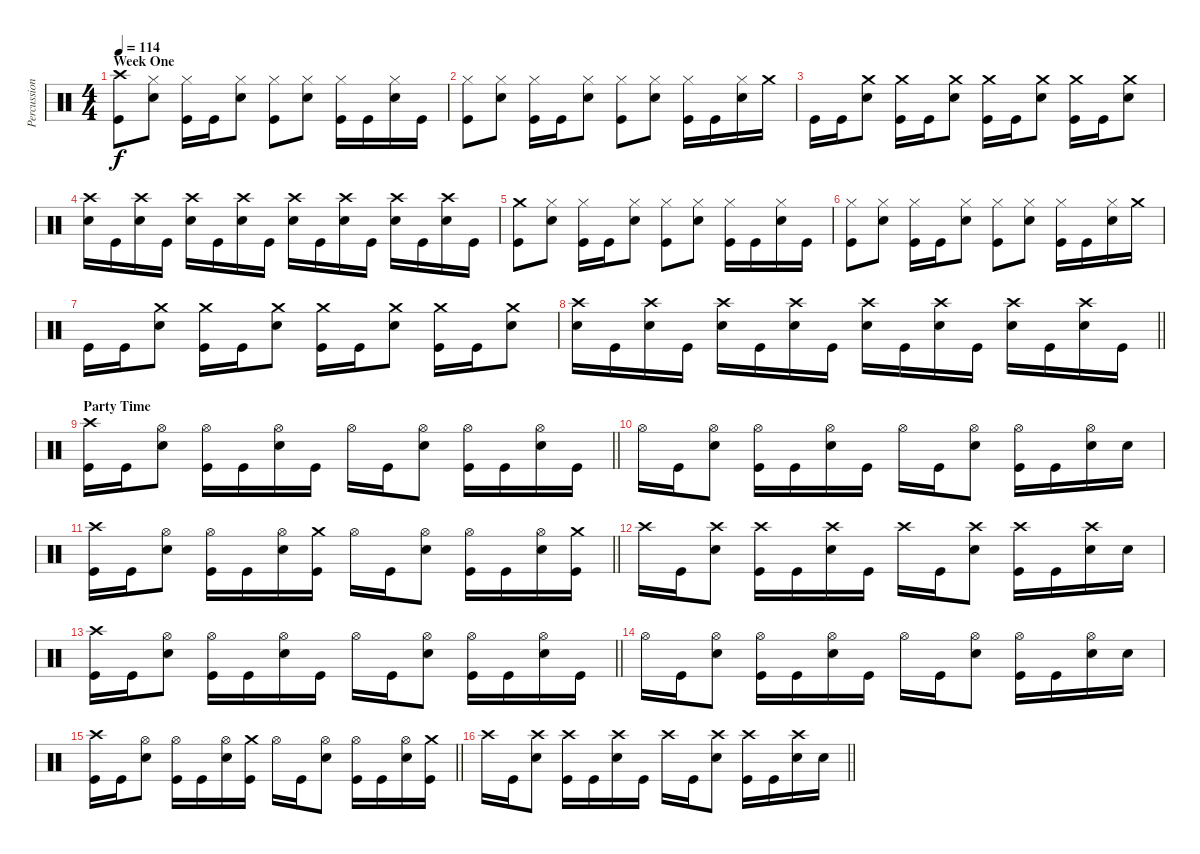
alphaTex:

\track ("Percussion" "Percussion") {instrument percussion}
\staff {score}
\articulation defaults
\ts (4 4)
\section ("" "Week One")
\tempo 114
\clef neutral
\ks c
("Crash high (hit)" "Kick (hit)").8{dy f} ("Hi-Hat (closed)" "Electric Snare (hit)").8 ("Hi-Hat (closed)" "Kick (hit)").16 "Kick (hit)".16 ("Hi-Hat (closed)" "Electric Snare (hit)").8 ("Hi-Hat (closed)" "Kick (hit)").8 ("Hi-Hat (closed)" "Electric Snare (hit)").8 ("Hi-Hat (closed)" "Kick (hit)").16 "Kick (hit)".16 ("Hi-Hat (closed)" "Electric Snare (hit)").16 "Kick (hit)".16 |
("Hi-Hat (closed)" "Kick (hit)").8 ("Hi-Hat (closed)" "Electric Snare (hit)").8 ("Hi-Hat (closed)" "Kick (hit)").16 "Kick (hit)".16 ("Hi-Hat (closed)" "Electric Snare (hit)").8 ("Hi-Hat (closed)" "Kick (hit)").8 ("Hi-Hat (closed)" "Electric Snare (hit)").8 ("Hi-Hat (closed)" "Kick (hit)").16 "Kick (hit)".16 ("Hi-Hat (closed)" "Electric Snare (hit)").16 "Crash medium (hit)".16 |
"Kick (hit)".16 "Kick (hit)".16 ("Crash medium (hit)" "Electric Snare (hit)").8 ("Crash medium (hit)" "Kick (hit)").16 "Kick (hit)".16 ("Crash medium (hit)" "Electric Snare (hit)").8 ("Crash medium (hit)" "Kick (hit)").16 "Kick (hit)".16 ("Crash medium (hit)" "Electric Snare (hit)").8 ("Crash medium (hit)" "Kick (hit)").16 "Kick (hit)".16 ("Crash medium (hit)" "Electric Snare (hit)").8 |
("Crash high (hit)" "Electric Snare (hit)").16 "Kick (hit)".16 ("Crash high (hit)" "Electric Snare (hit)").16 "Kick (hit)".16 ("Crash high (hit)" "Electric Snare (hit)").16 "Kick (hit)".16 ("Crash high (hit)" "Electric Snare (hit)").16 "Kick (hit)".16 ("Crash high (hit)" "Electric Snare (hit)").16 "Kick (hit)".16 ("Crash high (hit)" "Electric Snare (hit)").16 "Kick (hit)".16 ("Crash high (hit)" "Electric Snare (hit)").16 "Kick (hit)".16 ("Crash high (hit)" "Electric Snare (hit)").16 "Kick (hit)".16 |
("Crash medium (hit)" "Kick (hit)").8 ("Hi-Hat (closed)" "Electric Snare (hit)").8 ("Hi-Hat (closed)" "Kick (hit)").16 "Kick (hit)".16 ("Hi-Hat (closed)" "Electric Snare (hit)").8 ("Hi-Hat (closed)" "Kick (hit)").8 ("Hi-Hat (closed)" "Electric Snare (hit)").8 ("Hi-Hat (closed)" "Kick (hit)").16 "Kick (hit)".16 ("Hi-Hat (closed)" "Electric Snare (hit)").16 "Kick (hit)".16 |
("Hi-Hat (closed)" "Kick (hit)").8 ("Hi-Hat (closed)" "Electric Snare (hit)").8 ("Hi-Hat (closed)" "Kick (hit)").16 "Kick (hit)".16 ("Hi-Hat (closed)" "Electric Snare (hit)").8 ("Hi-Hat (closed)" "Kick (hit)").8 ("Hi-Hat (closed)" "Electric Snare (hit)").8 ("Hi-Hat (closed)" "Kick (hit)").16 "Kick (hit)".16 ("Hi-Hat (closed)" "Electric Snare (hit)").16 "Crash medium (hit)".16 |
"Kick (hit)".16 "Kick (hit)".16 ("Crash medium (hit)" "Electric Snare (hit)").8 ("Crash medium (hit)" "Kick (hit)").16 "Kick (hit)".16 ("Crash medium (hit)" "Electric Snare (hit)").8 ("Crash medium (hit)" "Kick (hit)").16 "Kick (hit)".16 ("Crash medium (hit)" "Electric Snare (hit)").8 ("Crash medium (hit)" "Kick (hit)").16 "Kick (hit)".16 ("Crash medium (hit)" "Electric Snare (hit)").8 |
\barLineRight lightlight
("Crash high (hit)" "Electric Snare (hit)").16 "Kick (hit)".16 ("Crash high (hit)" "Electric Snare (hit)").16 "Kick (hit)".16 ("Crash high (hit)" "Electric Snare (hit)").16 "Kick (hit)".16 ("Crash high (hit)" "Electric Snare (hit)").16 "Kick (hit)".16 ("Crash high (hit)" "Electric Snare (hit)").16 "Kick (hit)".16 ("Crash high (hit)" "Electric Snare (hit)").16 "Kick (hit)".16 ("Crash high (hit)" "Electric Snare (hit)").16 "Kick (hit)".16 ("Crash high (hit)" "Electric Snare (hit)").16 "Kick (hit)".16 |
\section ("" "Party Time")
\barLineRight lightlight
("Crash high (hit)" "Kick (hit)").16 "Kick (hit)".16 ("Hi-Hat (open)" "Electric Snare (hit)").8 ("Hi-Hat (open)" "Kick (hit)").16 "Kick (hit)".16 ("Hi-Hat (open)" "Electric Snare (hit)").16 "Kick (hit)".16 "Hi-Hat (open)".16 "Kick (hit)".16 ("Hi-Hat (open)" "Electric Snare (hit)").8 ("Hi-Hat (open)" "Kick (hit)").16 "Kick (hit)".16 ("Hi-Hat (open)" "Electric Snare (hit)").16 "Kick (hit)".16 |
"Hi-Hat (open)".16 "Kick (hit)".16 ("Hi-Hat (open)" "Electric Snare (hit)").8 ("Hi-Hat (open)" "Kick (hit)").16 "Kick (hit)".16 ("Hi-Hat (open)" "Electric Snare (hit)").16 "Kick (hit)".16 "Hi-Hat (open)".16 "Kick (hit)".16 ("Hi-Hat (open)" "Electric Snare (hit)").8 ("Hi-Hat (open)" "Kick (hit)").16 "Kick (hit)".16 ("Hi-Hat (open)" "Electric Snare (hit)").16 "Electric Snare (hit)".16 |
\barLineRight lightlight
("Crash high (hit)" "Kick (hit)").16 "Kick (hit)".16 ("Hi-Hat (open)" "Electric Snare (hit)").8 ("Hi-Hat (open)" "Kick (hit)").16 "Kick (hit)".16 ("Hi-Hat (open)" "Electric Snare (hit)").16 ("Crash medium (hit)" "Kick (hit)").16 "Hi-Hat (open)".16 "Kick (hit)".16 ("Hi-Hat (open)" "Electric Snare (hit)").8 ("Hi-Hat (open)" "Kick (hit)").16 "Kick (hit)".16 ("Hi-Hat (open)" "Electric Snare (hit)").16 ("Crash medium (hit)" "Kick (hit)").16 |
"Crash high (hit)".16 "Kick (hit)".16 ("Crash high (hit)" "Electric Snare (hit)").8 ("Crash high (hit)" "Kick (hit)").16 "Kick (hit)".16 ("Crash high (hit)" "Electric Snare (hit)").16 "Kick (hit)".16 "Crash high (hit)".16 "Kick (hit)".16 ("Crash high (hit)" "Electric Snare (hit)").8 ("Crash high (hit)" "Kick (hit)").16 "Kick (hit)".16 ("Crash high (hit)" "Electric Snare (hit)").16 "Electric Snare (hit)".16 |
\barLineRight lightlight
("Crash high (hit)" "Kick (hit)").16 "Kick (hit)".16 ("Hi-Hat (open)" "Electric Snare (hit)").8 ("Hi-Hat (open)" "Kick (hit)").16 "Kick (hit)".16 ("Hi-Hat (open)" "Electric Snare (hit)").16 "Kick (hit)".16 "Hi-Hat (open)".16 "Kick (hit)".16 ("Hi-Hat (open)" "Electric Snare (hit)").8 ("Hi-Hat (open)" "Kick (hit)").16 "Kick (hit)".16 ("Hi-Hat (open)" "Electric Snare (hit)").16 "Kick (hit)".16 |
"Hi-Hat (open)".16 "Kick (hit)".16 ("Hi-Hat (open)" "Electric Snare (hit)").8 ("Hi-Hat (open)" "Kick (hit)").16 "Kick (hit)".16 ("Hi-Hat (open)" "Electric Snare (hit)").16 "Kick (hit)".16 "Hi-Hat (open)".16 "Kick (hit)".16 ("Hi-Hat (open)" "Electric Snare (hit)").8 ("Hi-Hat (open)" "Kick (hit)").16 "Kick (hit)".16 ("Hi-Hat (open)" "Electric Snare (hit)").16 "Electric Snare (hit)".16 |
\barLineRight lightlight
("Crash high (hit)" "Kick (hit)").16 "Kick (hit)".16 ("Hi-Hat (open)" "Electric Snare (hit)").8 ("Hi-Hat (open)" "Kick (hit)").16 "Kick (hit)".16 ("Hi-Hat (open)" "Electric Snare (hit)").16 ("Crash medium (hit)" "Kick (hit)").16 "Hi-Hat (open)".16 "Kick (hit)".16 ("Hi-Hat (open)" "Electric Snare (hit)").8 ("Hi-Hat (open)" "Kick (hit)").16 "Kick (hit)".16 ("Hi-Hat (open)" "Electric Snare (hit)").16 ("Crash medium (hit)" "Kick (hit)").16 |
\barLineRight lightlight "Crash high (hit)".16 "Kick (hit)".16
("Crash high (hit)" "Electric Snare (hit)").8 ("Crash high (hit)" "Kick (hit)").16 "Kick (hit)".16 ("Crash high (hit)" "Electric Snare (hit)").16 "Kick (hit)".16 "Crash high (hit)".16 "Kick (hit)".16 ("Crash high (hit)" "Electric Snare (hit)").8 ("Crash high (hit)" "Kick (hit)").16 "Kick (hit)".16 ("Crash high (hit)" "Electric Snare (hit)").16 "Electric Snare (hit)".16
